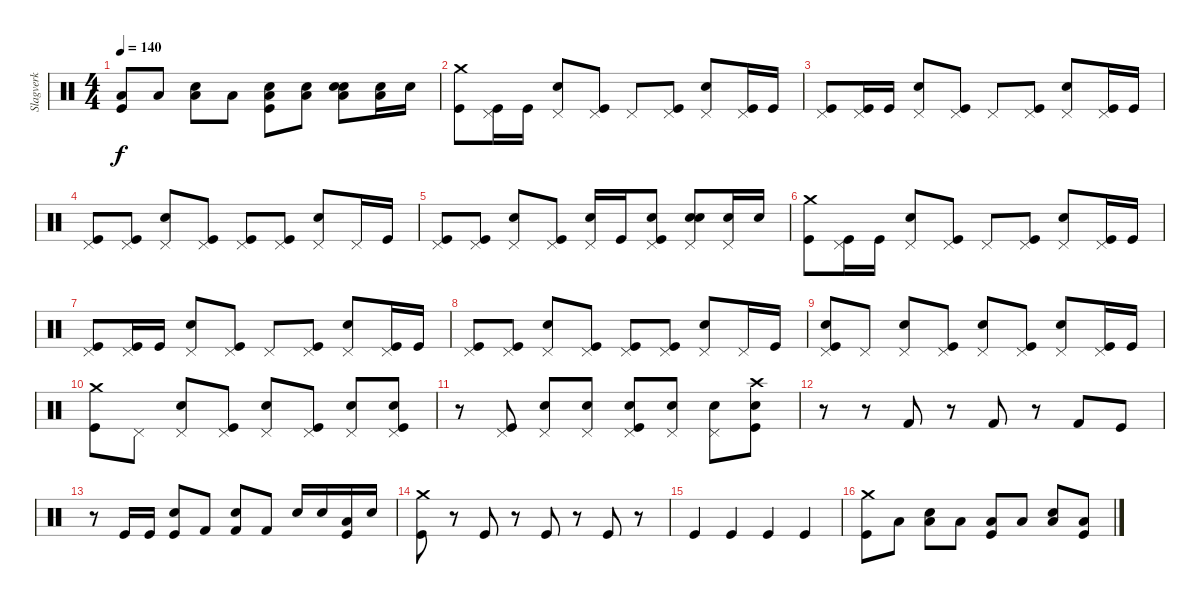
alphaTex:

\track ("Slagverk" "Slagverk") {instrument percussion}
\staff {score}
\articulation defaults
\ts (4 4)
\tempo 140
\clef neutral
\ks c
("Low Floor Tom (hit)" "Kick (hit)").8{dy f} "Low Floor Tom (hit)".8 ("Low Floor Tom (hit)" "Snare (hit) 2").8 "Low Floor Tom (hit)".8 ("Low Floor Tom (hit)" "Electric Snare (hit)" "Kick (hit)").8 ("Low Floor Tom (hit)" "Electric Snare (hit)").8 ("Low Floor Tom (hit)" "Snare (hit) 2" "Electric Snare (hit)").8 ("Low Floor Tom (hit)" "Electric Snare (hit)").16 "Electric Snare (hit)".16 |
("Crash medium (hit)" "Kick (hit)").8 ("Pedal Hi-Hat (hit)" "Kick (hit)").16 "Kick (hit)".16 ("Pedal Hi-Hat (hit)" "Snare (hit) 2").8 ("Pedal Hi-Hat (hit)" "Kick (hit)").8 "Pedal Hi-Hat (hit)".8 ("Pedal Hi-Hat (hit)" "Kick (hit)").8 ("Pedal Hi-Hat (hit)" "Snare (hit) 2").8 ("Pedal Hi-Hat (hit)" "Kick (hit)").16 "Kick (hit)".16 |
("Pedal Hi-Hat (hit)" "Kick (hit)").8 ("Pedal Hi-Hat (hit)" "Kick (hit)").16 "Kick (hit)".16 ("Pedal Hi-Hat (hit)" "Snare (hit) 2").8 ("Pedal Hi-Hat (hit)" "Kick (hit)").8 "Pedal Hi-Hat (hit)".8 ("Pedal Hi-Hat (hit)" "Kick (hit)").8 ("Pedal Hi-Hat (hit)" "Snare (hit) 2").8 ("Pedal Hi-Hat (hit)" "Kick (hit)").16 "Kick (hit)".16 |
("Pedal Hi-Hat (hit)" "Kick (hit)").8 ("Pedal Hi-Hat (hit)" "Kick (hit)").8 ("Pedal Hi-Hat (hit)" "Snare (hit) 2").8 ("Pedal Hi-Hat (hit)" "Kick (hit)").8 ("Pedal Hi-Hat (hit)" "Kick (hit)").8 ("Pedal Hi-Hat (hit)" "Kick (hit)").8 ("Pedal Hi-Hat (hit)" "Snare (hit) 2").8 "Pedal Hi-Hat (hit)".16 "Kick (hit)".16 |
("Pedal Hi-Hat (hit)" "Kick (hit)").8 ("Pedal Hi-Hat (hit)" "Kick (hit)").8 ("Pedal Hi-Hat (hit)" "Snare (hit) 2").8 ("Pedal Hi-Hat (hit)" "Kick (hit)").8 ("Pedal Hi-Hat (hit)" "Electric Snare (hit)").16 "Kick (hit)".16 ("Pedal Hi-Hat (hit)" "Electric Snare (hit)" "Kick (hit)").8 ("Pedal Hi-Hat (hit)" "Snare (hit) 2" "Electric Snare (hit)").8 ("Pedal Hi-Hat (hit)" "Electric Snare (hit)").16 "Electric Snare (hit)".16 |
("Crash medium (hit)" "Kick (hit)").8 ("Pedal Hi-Hat (hit)" "Kick (hit)").16 "Kick (hit)".16 ("Pedal Hi-Hat (hit)" "Snare (hit) 2").8 ("Pedal Hi-Hat (hit)" "Kick (hit)").8 "Pedal Hi-Hat (hit)".8 ("Pedal Hi-Hat (hit)" "Kick (hit)").8 ("Pedal Hi-Hat (hit)" "Snare (hit) 2").8 ("Pedal Hi-Hat (hit)" "Kick (hit)").16 "Kick (hit)".16 |
("Pedal Hi-Hat (hit)" "Kick (hit)").8 ("Pedal Hi-Hat (hit)" "Kick (hit)").16 "Kick (hit)".16 ("Pedal Hi-Hat (hit)" "Snare (hit) 2").8 ("Pedal Hi-Hat (hit)" "Kick (hit)").8 "Pedal Hi-Hat (hit)".8 ("Pedal Hi-Hat (hit)" "Kick (hit)").8 ("Pedal Hi-Hat (hit)" "Snare (hit) 2").8 ("Pedal Hi-Hat (hit)" "Kick (hit)").16 "Kick (hit)".16 |
("Pedal Hi-Hat (hit)" "Kick (hit)").8 ("Pedal Hi-Hat (hit)" "Kick (hit)").8 ("Pedal Hi-Hat (hit)" "Snare (hit) 2").8 ("Pedal Hi-Hat (hit)" "Kick (hit)").8 ("Pedal Hi-Hat (hit)" "Kick (hit)").8 ("Pedal Hi-Hat (hit)" "Kick (hit)").8 ("Pedal Hi-Hat (hit)" "Snare (hit) 2").8 "Pedal Hi-Hat (hit)".16 "Kick (hit)".16 |
("Pedal Hi-Hat (hit)" "Snare (hit) 2" "Kick (hit)").8 "Pedal Hi-Hat (hit)".8 ("Pedal Hi-Hat (hit)" "Snare (hit) 2").8 ("Pedal Hi-Hat (hit)" "Kick (hit)").8 ("Pedal Hi-Hat (hit)" "Snare (hit) 2").8 ("Pedal Hi-Hat (hit)" "Kick (hit)").8 ("Pedal Hi-Hat (hit)" "Snare (hit) 2").8 ("Pedal Hi-Hat (hit)" "Kick (hit)").16 "Kick (hit)".16 |
("Crash medium (hit)" "Kick (hit)").8 "Pedal Hi-Hat (hit)".8 ("Pedal Hi-Hat (hit)" "Snare (hit) 2").8 ("Pedal Hi-Hat (hit)" "Kick (hit)").8 ("Pedal Hi-Hat (hit)" "Electric Snare (hit)").8 ("Pedal Hi-Hat (hit)" "Kick (hit)").8 ("Pedal Hi-Hat (hit)" "Electric Snare (hit)").8 ("Pedal Hi-Hat (hit)" "Snare (hit) 2" "Kick (hit)").8 |
r.8 ("Pedal Hi-Hat (hit)" "Kick (hit)").8 ("Pedal Hi-Hat (hit)" "Snare (hit) 2").8 ("Pedal Hi-Hat (hit)" "Snare (hit) 2").8 ("Pedal Hi-Hat (hit)" "Snare (hit) 2" "Kick (hit)").8 ("Pedal Hi-Hat (hit)" "Snare (hit) 2").8 ("Pedal Hi-Hat (hit)" "Snare (hit) 2").8 ("Crash high (hit)" "Snare (hit) 2" "Kick (hit)").8 |
r.8 r.8 "Kick (hit) 2".8 r.8 "Kick (hit) 2".8 r.8 "Kick (hit) 2".8 "Kick (hit)".8 |
r.8 "Kick (hit)".16 "Kick (hit)".16 ("Electric Snare (hit)" "Kick (hit)").8 "Kick (hit) 2".8 ("Electric Snare (hit)" "Kick (hit) 2").8 "Kick (hit) 2".8 "Snare (hit) 2".16 "Electric Snare (hit)".16 ("Low Floor Tom (hit)" "Kick (hit)").16 "Electric Snare (hit)".16 |
("Crash medium (hit)" "Kick (hit)").8 r.8 "Kick (hit)".8 r.8 "Kick (hit)".8 r.8 "Kick (hit)".8 r.8 |
"Kick (hit)".4 "Kick (hit)".4 "Kick (hit)".4 "Kick (hit)".4 |
("Crash medium (hit)" "Kick (hit)").8 "Low Floor Tom (hit)".8 ("Low Floor Tom (hit)" "Snare (hit) 2").8 "Low Floor Tom (hit)".8 ("Low Floor Tom (hit)" "Kick (hit)").8 "Low Floor Tom (hit)".8 ("Low Floor Tom (hit)" "Snare (hit) 2").8 ("Low Floor Tom (hit)" "Kick (hit)").8
